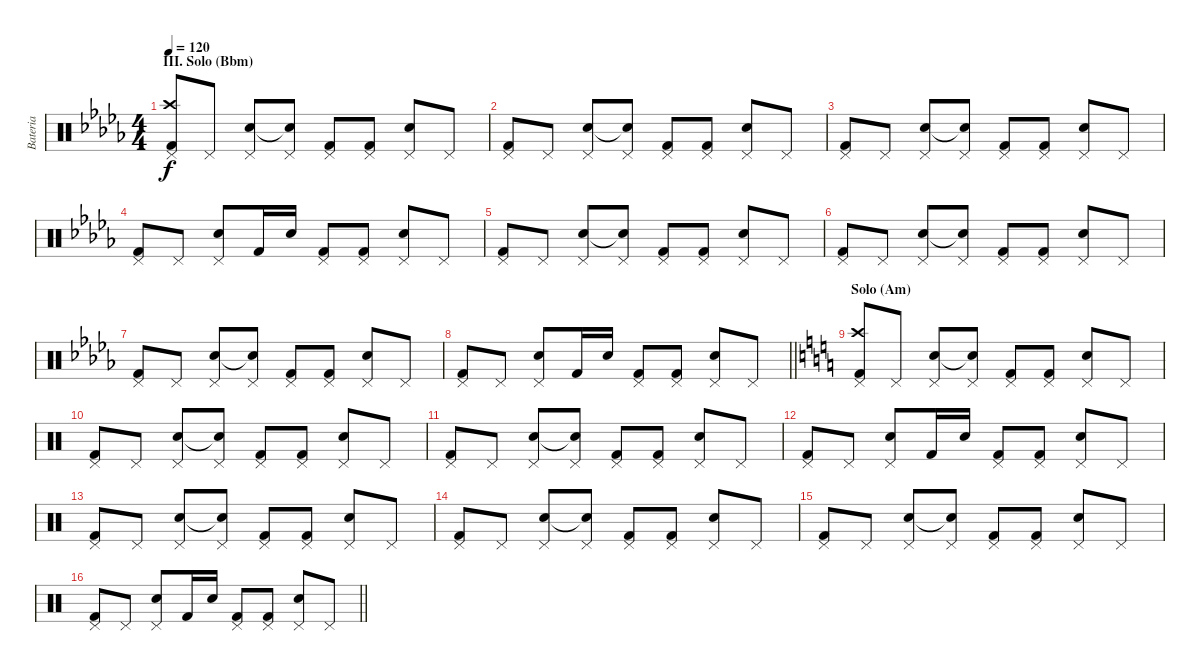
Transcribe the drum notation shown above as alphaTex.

\track ("Bateria" "Bateria") {instrument percussion}
\staff {score}
\articulation defaults
\ts (4 4)
\section ("" "III. Solo (Bbm)")
\tempo 120
\clef neutral
\ks db
("Pedal Hi-Hat (hit)" "Crash high (hit)" "Kick (hit) 2").8{dy f} "Pedal Hi-Hat (hit)".8 ("Pedal Hi-Hat (hit)" "Snare (hit) 2").8 ("Pedal Hi-Hat (hit)" "Snare (hit)"{t}).8 ("Pedal Hi-Hat (hit)" "Kick (hit) 2").8 ("Pedal Hi-Hat (hit)" "Kick (hit) 2").8 ("Pedal Hi-Hat (hit)" "Snare (hit) 2").8 "Pedal Hi-Hat (hit)".8 |
("Pedal Hi-Hat (hit)" "Kick (hit) 2").8 "Pedal Hi-Hat (hit)".8 ("Pedal Hi-Hat (hit)" "Snare (hit) 2").8 ("Pedal Hi-Hat (hit)" "Snare (hit)"{t}).8 ("Pedal Hi-Hat (hit)" "Kick (hit) 2").8 ("Pedal Hi-Hat (hit)" "Kick (hit) 2").8 ("Pedal Hi-Hat (hit)" "Snare (hit) 2").8 "Pedal Hi-Hat (hit)".8 |
("Pedal Hi-Hat (hit)" "Kick (hit) 2").8 "Pedal Hi-Hat (hit)".8 ("Pedal Hi-Hat (hit)" "Snare (hit) 2").8 ("Pedal Hi-Hat (hit)" "Snare (hit)"{t}).8 ("Pedal Hi-Hat (hit)" "Kick (hit) 2").8 ("Pedal Hi-Hat (hit)" "Kick (hit) 2").8 ("Pedal Hi-Hat (hit)" "Snare (hit) 2").8 "Pedal Hi-Hat (hit)".8 |
("Pedal Hi-Hat (hit)" "Kick (hit) 2").8 "Pedal Hi-Hat (hit)".8 ("Pedal Hi-Hat (hit)" "Snare (hit) 2").8 "Kick (hit) 2".16 "Snare (hit) 2".16 ("Pedal Hi-Hat (hit)" "Kick (hit) 2").8 ("Pedal Hi-Hat (hit)" "Kick (hit) 2").8 ("Pedal Hi-Hat (hit)" "Snare (hit) 2").8 "Pedal Hi-Hat (hit)".8 |
("Pedal Hi-Hat (hit)" "Kick (hit) 2").8 "Pedal Hi-Hat (hit)".8 ("Pedal Hi-Hat (hit)" "Snare (hit) 2").8 ("Pedal Hi-Hat (hit)" "Snare (hit)"{t}).8 ("Pedal Hi-Hat (hit)" "Kick (hit) 2").8 ("Pedal Hi-Hat (hit)" "Kick (hit) 2").8 ("Pedal Hi-Hat (hit)" "Snare (hit) 2").8 "Pedal Hi-Hat (hit)".8 |
("Pedal Hi-Hat (hit)" "Kick (hit) 2").8 "Pedal Hi-Hat (hit)".8 ("Pedal Hi-Hat (hit)" "Snare (hit) 2").8 ("Pedal Hi-Hat (hit)" "Snare (hit)"{t}).8 ("Pedal Hi-Hat (hit)" "Kick (hit) 2").8 ("Pedal Hi-Hat (hit)" "Kick (hit) 2").8 ("Pedal Hi-Hat (hit)" "Snare (hit) 2").8 "Pedal Hi-Hat (hit)".8 |
("Pedal Hi-Hat (hit)" "Kick (hit) 2").8 "Pedal Hi-Hat (hit)".8 ("Pedal Hi-Hat (hit)" "Snare (hit) 2").8 ("Pedal Hi-Hat (hit)" "Snare (hit)"{t}).8 ("Pedal Hi-Hat (hit)" "Kick (hit) 2").8 ("Pedal Hi-Hat (hit)" "Kick (hit) 2").8 ("Pedal Hi-Hat (hit)" "Snare (hit) 2").8 "Pedal Hi-Hat (hit)".8 |
\barLineRight lightlight
("Pedal Hi-Hat (hit)" "Kick (hit) 2").8 "Pedal Hi-Hat (hit)".8 ("Pedal Hi-Hat (hit)" "Snare (hit) 2").8 "Kick (hit) 2".16 "Snare (hit) 2".16 ("Pedal Hi-Hat (hit)" "Kick (hit) 2").8 ("Pedal Hi-Hat (hit)" "Kick (hit) 2").8 ("Pedal Hi-Hat (hit)" "Snare (hit) 2").8 "Pedal Hi-Hat (hit)".8 |
\section ("" "Solo (Am)")
\ks c
("Pedal Hi-Hat (hit)" "Crash high (hit)" "Kick (hit) 2").8 "Pedal Hi-Hat (hit)".8 ("Pedal Hi-Hat (hit)" "Snare (hit) 2").8 ("Pedal Hi-Hat (hit)" "Snare (hit)"{t}).8 ("Pedal Hi-Hat (hit)" "Kick (hit) 2").8 ("Pedal Hi-Hat (hit)" "Kick (hit) 2").8 ("Pedal Hi-Hat (hit)" "Snare (hit) 2").8 "Pedal Hi-Hat (hit)".8 |
("Pedal Hi-Hat (hit)" "Kick (hit) 2").8 "Pedal Hi-Hat (hit)".8 ("Pedal Hi-Hat (hit)" "Snare (hit) 2").8 ("Pedal Hi-Hat (hit)" "Snare (hit)"{t}).8 ("Pedal Hi-Hat (hit)" "Kick (hit) 2").8 ("Pedal Hi-Hat (hit)" "Kick (hit) 2").8 ("Pedal Hi-Hat (hit)" "Snare (hit) 2").8 "Pedal Hi-Hat (hit)".8 |
("Pedal Hi-Hat (hit)" "Kick (hit) 2").8 "Pedal Hi-Hat (hit)".8 ("Pedal Hi-Hat (hit)" "Snare (hit) 2").8 ("Pedal Hi-Hat (hit)" "Snare (hit)"{t}).8 ("Pedal Hi-Hat (hit)" "Kick (hit) 2").8 ("Pedal Hi-Hat (hit)" "Kick (hit) 2").8 ("Pedal Hi-Hat (hit)" "Snare (hit) 2").8 "Pedal Hi-Hat (hit)".8 |
("Pedal Hi-Hat (hit)" "Kick (hit) 2").8 "Pedal Hi-Hat (hit)".8 ("Pedal Hi-Hat (hit)" "Snare (hit) 2").8 "Kick (hit) 2".16 "Snare (hit) 2".16 ("Pedal Hi-Hat (hit)" "Kick (hit) 2").8 ("Pedal Hi-Hat (hit)" "Kick (hit) 2").8 ("Pedal Hi-Hat (hit)" "Snare (hit) 2").8 "Pedal Hi-Hat (hit)".8 |
("Pedal Hi-Hat (hit)" "Kick (hit) 2").8 "Pedal Hi-Hat (hit)".8 ("Pedal Hi-Hat (hit)" "Snare (hit) 2").8 ("Pedal Hi-Hat (hit)" "Snare (hit)"{t}).8 ("Pedal Hi-Hat (hit)" "Kick (hit) 2").8 ("Pedal Hi-Hat (hit)" "Kick (hit) 2").8 ("Pedal Hi-Hat (hit)" "Snare (hit) 2").8 "Pedal Hi-Hat (hit)".8 |
("Pedal Hi-Hat (hit)" "Kick (hit) 2").8 "Pedal Hi-Hat (hit)".8 ("Pedal Hi-Hat (hit)" "Snare (hit) 2").8 ("Pedal Hi-Hat (hit)" "Snare (hit)"{t}).8 ("Pedal Hi-Hat (hit)" "Kick (hit) 2").8 ("Pedal Hi-Hat (hit)" "Kick (hit) 2").8 ("Pedal Hi-Hat (hit)" "Snare (hit) 2").8 "Pedal Hi-Hat (hit)".8 |
("Pedal Hi-Hat (hit)" "Kick (hit) 2").8 "Pedal Hi-Hat (hit)".8 ("Pedal Hi-Hat (hit)" "Snare (hit) 2").8 ("Pedal Hi-Hat (hit)" "Snare (hit)"{t}).8 ("Pedal Hi-Hat (hit)" "Kick (hit) 2").8 ("Pedal Hi-Hat (hit)" "Kick (hit) 2").8 ("Pedal Hi-Hat (hit)" "Snare (hit) 2").8 "Pedal Hi-Hat (hit)".8 |
\barLineRight lightlight
("Pedal Hi-Hat (hit)" "Kick (hit) 2").8 "Pedal Hi-Hat (hit)".8 ("Pedal Hi-Hat (hit)" "Snare (hit) 2").8 "Kick (hit) 2".16 "Snare (hit) 2".16 ("Pedal Hi-Hat (hit)" "Kick (hit) 2").8 ("Pedal Hi-Hat (hit)" "Kick (hit) 2").8 ("Pedal Hi-Hat (hit)" "Snare (hit) 2").8 "Pedal Hi-Hat (hit)".8
